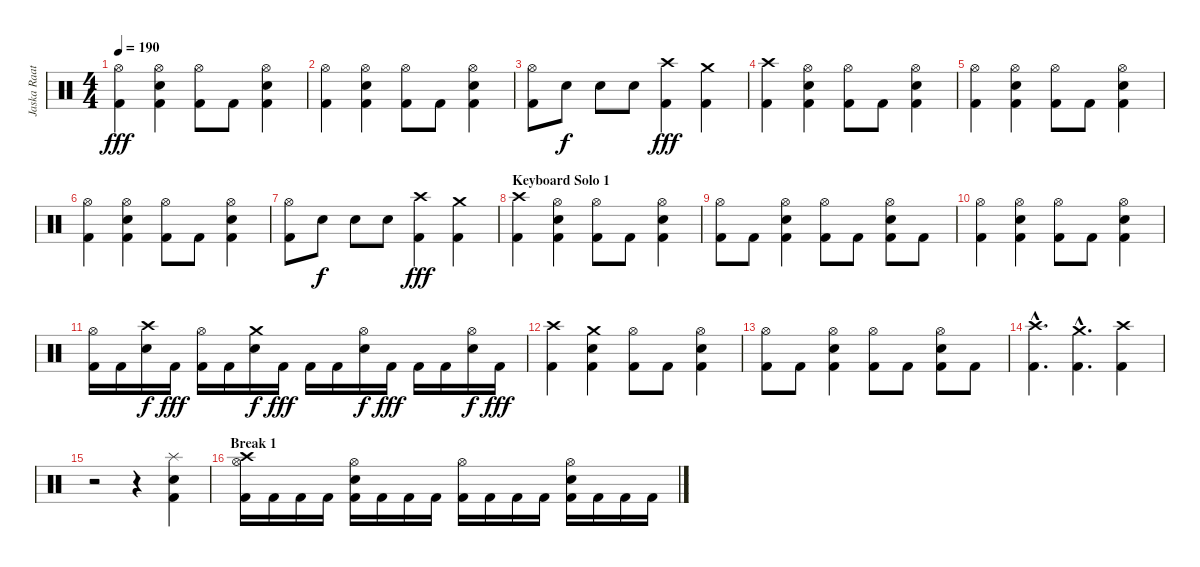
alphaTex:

\track ("Jaska Raatikainen (Drums)" "Jaska Raat") {instrument percussion}
\staff {score}
\articulation defaults
\ts (4 4)
\tempo 190
\clef neutral
\ks c
("Hi-Hat (open)" "Kick (hit) 2").4{dy fff} ("Hi-Hat (open)" "Electric Snare (hit)" "Kick (hit) 2").4 ("Hi-Hat (open)" "Kick (hit) 2").8 "Kick (hit) 2".8 ("Hi-Hat (open)" "Electric Snare (hit)" "Kick (hit) 2").4 |
("Hi-Hat (open)" "Kick (hit) 2").4 ("Hi-Hat (open)" "Electric Snare (hit)" "Kick (hit) 2").4 ("Hi-Hat (open)" "Kick (hit) 2").8 "Kick (hit) 2".8 ("Hi-Hat (open)" "Electric Snare (hit)" "Kick (hit) 2").4 |
("Hi-Hat (open)" "Kick (hit) 2").8 "Electric Snare (hit)".8{dy f} "Electric Snare (hit)".8 "Electric Snare (hit)".8 ("Crash high (hit)" "Kick (hit) 2").4{dy fff} ("Crash medium (hit)" "Kick (hit) 2").4 |
("Crash high (hit)" "Kick (hit) 2").4 ("Hi-Hat (open)" "Electric Snare (hit)" "Kick (hit) 2").4 ("Hi-Hat (open)" "Kick (hit) 2").8 "Kick (hit) 2".8 ("Hi-Hat (open)" "Electric Snare (hit)" "Kick (hit) 2").4 |
("Hi-Hat (open)" "Kick (hit) 2").4 ("Hi-Hat (open)" "Electric Snare (hit)" "Kick (hit) 2").4 ("Hi-Hat (open)" "Kick (hit) 2").8 "Kick (hit) 2".8 ("Hi-Hat (open)" "Electric Snare (hit)" "Kick (hit) 2").4 |
("Hi-Hat (open)" "Kick (hit) 2").4 ("Hi-Hat (open)" "Electric Snare (hit)" "Kick (hit) 2").4 ("Hi-Hat (open)" "Kick (hit) 2").8 "Kick (hit) 2".8 ("Hi-Hat (open)" "Electric Snare (hit)" "Kick (hit) 2").4 |
("Hi-Hat (open)" "Kick (hit) 2").8 "Electric Snare (hit)".8{dy f} "Electric Snare (hit)".8 "Electric Snare (hit)".8 ("Crash high (hit)" "Kick (hit) 2").4{dy fff} ("Crash medium (hit)" "Kick (hit) 2").4 |
\section ("" "Keyboard Solo 1")
("Crash high (hit)" "Kick (hit) 2").4 ("Hi-Hat (open)" "Electric Snare (hit)" "Kick (hit) 2").4 ("Hi-Hat (open)" "Kick (hit) 2").8 "Kick (hit) 2".8 ("Hi-Hat (open)" "Electric Snare (hit)" "Kick (hit) 2").4 |
("Hi-Hat (open)" "Kick (hit) 2").8 "Kick (hit) 2".8 ("Hi-Hat (open)" "Electric Snare (hit)" "Kick (hit) 2").4 ("Hi-Hat (open)" "Kick (hit) 2").8 "Kick (hit) 2".8 ("Hi-Hat (open)" "Electric Snare (hit)" "Kick (hit) 2").8 "Kick (hit) 2".8 |
("Hi-Hat (open)" "Kick (hit) 2").4 ("Hi-Hat (open)" "Electric Snare (hit)" "Kick (hit) 2").4 ("Hi-Hat (open)" "Kick (hit) 2").8 "Kick (hit) 2".8 ("Hi-Hat (open)" "Electric Snare (hit)" "Kick (hit) 2").4 |
("Hi-Hat (open)" "Kick (hit) 2").16 "Kick (hit) 2".16 ("Crash high (hit)" "Electric Snare (hit)").16{dy f} "Kick (hit) 2".16{dy fff} ("Hi-Hat (open)" "Kick (hit) 2").16 "Kick (hit) 2".16 ("Crash medium (hit)" "Electric Snare (hit)").16{dy f} "Kick (hit) 2".16{dy fff} "Kick (hit) 2".16 "Kick (hit) 2".16 ("Hi-Hat (open)" "Electric Snare (hit)").16{dy f} "Kick (hit) 2".16{dy fff} "Kick (hit) 2".16 "Kick (hit) 2".16 ("Hi-Hat (open)" "Electric Snare (hit)").16{dy f} "Kick (hit) 2".16{dy fff} |
("Crash high (hit)" "Kick (hit) 2").4 ("Crash medium (hit)" "Electric Snare (hit)" "Kick (hit) 2").4 ("Hi-Hat (open)" "Kick (hit) 2").8 "Kick (hit) 2".8 ("Hi-Hat (open)" "Electric Snare (hit)" "Kick (hit) 2").4 |
("Hi-Hat (open)" "Kick (hit) 2").8 "Kick (hit) 2".8 ("Hi-Hat (open)" "Electric Snare (hit)" "Kick (hit) 2").4 ("Hi-Hat (open)" "Kick (hit) 2").8 "Kick (hit) 2".8 ("Hi-Hat (open)" "Electric Snare (hit)" "Kick (hit) 2").8 "Kick (hit) 2".8 |
("Crash high (hit)"{hac} "Kick (hit) 2"{hac}).4{d} ("Crash medium (hit)"{hac} "Kick (hit) 2"{hac}).4{d} ("Crash high (hit)" "Kick (hit) 2").4 |
r.2 r.4 ("Splash (hit)" "Electric Snare (hit)" "Kick (hit) 2").4 |
\section ("" "Break 1")
("Hi-Hat (open)" "Crash high (hit)" "Kick (hit) 2").16 "Kick (hit) 2".16 "Kick (hit) 2".16 "Kick (hit) 2".16 ("Hi-Hat (open)" "Electric Snare (hit)" "Kick (hit) 2").16 "Kick (hit) 2".16 "Kick (hit) 2".16 "Kick (hit) 2".16 ("Hi-Hat (open)" "Kick (hit) 2").16 "Kick (hit) 2".16 "Kick (hit) 2".16 "Kick (hit) 2".16 ("Hi-Hat (open)" "Electric Snare (hit)" "Kick (hit) 2").16 "Kick (hit) 2".16 "Kick (hit) 2".16 "Kick (hit) 2".16
